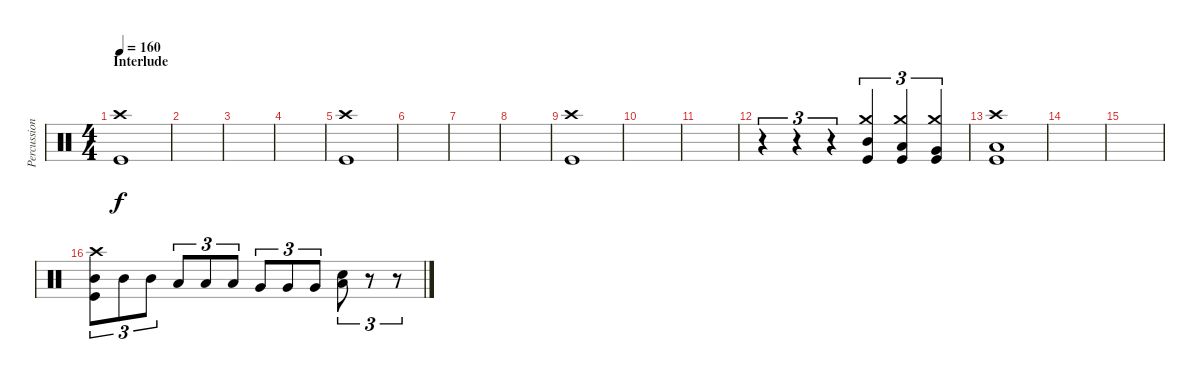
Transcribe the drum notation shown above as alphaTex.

\track ("Percussion" "Percussion") {instrument percussion}
\staff {score}
\articulation defaults
\ts (4 4)
\section ("" "Interlude")
\tempo 160
\clef neutral
\ks c
("Crash high (hit)" "Kick (hit)").1{dy f} |
|
|
|
("Crash high (hit)" "Kick (hit)").1 |
|
|
|
("Crash high (hit)" "Kick (hit)").1 |
|
|
r.4{tu (3 2)} r.4{tu (3 2)} r.4{tu (3 2)} ("Crash medium (hit)" "Mid Tom (hit)" "Kick (hit)").4{tu (3 2)} ("Crash medium (hit)" "Low Tom (hit)" "Kick (hit)").4{tu (3 2)} ("Crash medium (hit)" "Very Low Tom (hit)" "Kick (hit)").4{tu (3 2)} |
("Crash high (hit)" "Low Floor Tom (hit)" "Kick (hit)").1 |
|
|
("Crash high (hit)" "Mid Tom (hit)" "Kick (hit)").8{tu (3 2)} "Mid Tom (hit)".8{tu (3 2)} "Mid Tom (hit)".8{tu (3 2)} "Low Tom (hit)".8{tu (3 2)} "Low Tom (hit)".8{tu (3 2)} "Low Tom (hit)".8{tu (3 2)} "Very Low Tom (hit)".8{tu (3 2)} "Very Low Tom (hit)".8{tu (3 2)} "Very Low Tom (hit)".8{tu (3 2)} ("Low Floor Tom (hit)" "Electric Snare (hit)").8{tu (3 2)} r.8{tu (3 2)} r.8{tu (3 2)}
